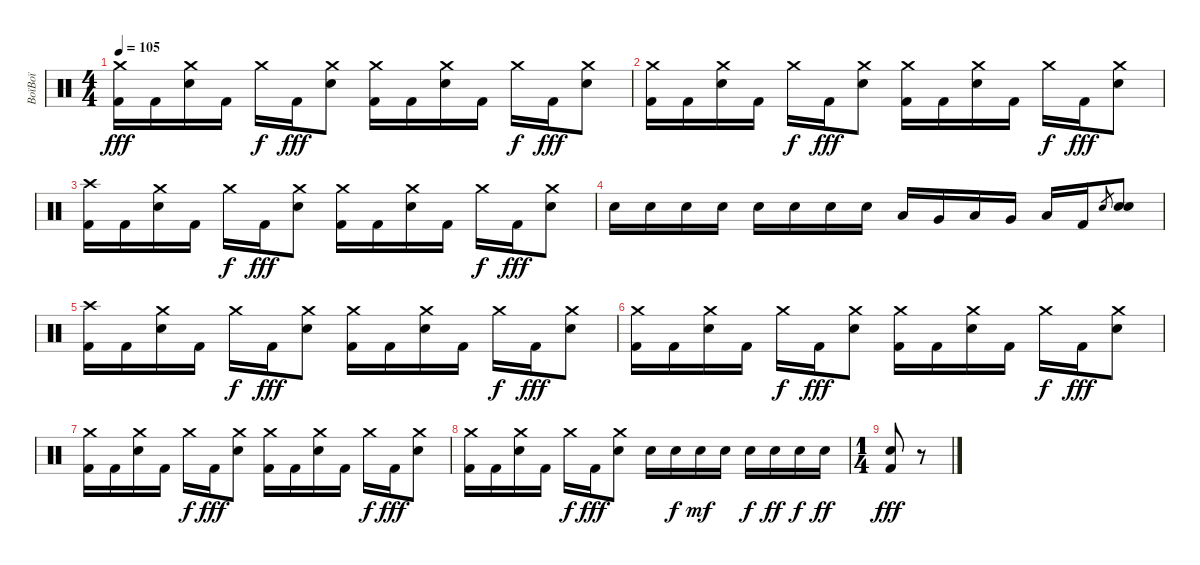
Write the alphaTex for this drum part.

\track ("BoïBoï" "BoïBoï") {instrument percussion}
\staff {score}
\articulation defaults
\ts (4 4)
\tempo 105
\clef neutral
\ks c
("Crash medium (hit)" "Kick (hit) 2").16{dy fff} "Kick (hit) 2".16 ("Crash medium (hit)" "Electric Snare (hit)").16 "Kick (hit) 2".16 "Crash medium (hit)".16{dy f} "Kick (hit) 2".16{dy fff} ("Crash medium (hit)" "Electric Snare (hit)").8 ("Crash medium (hit)" "Kick (hit) 2").16 "Kick (hit) 2".16 ("Crash medium (hit)" "Electric Snare (hit)").16 "Kick (hit) 2".16 "Crash medium (hit)".16{dy f} "Kick (hit) 2".16{dy fff} ("Crash medium (hit)" "Electric Snare (hit)").8 |
("Crash medium (hit)" "Kick (hit) 2").16 "Kick (hit) 2".16 ("Crash medium (hit)" "Electric Snare (hit)").16 "Kick (hit) 2".16 "Crash medium (hit)".16{dy f} "Kick (hit) 2".16{dy fff} ("Crash medium (hit)" "Electric Snare (hit)").8 ("Crash medium (hit)" "Kick (hit) 2").16 "Kick (hit) 2".16 ("Crash medium (hit)" "Electric Snare (hit)").16 "Kick (hit) 2".16 "Crash medium (hit)".16{dy f} "Kick (hit) 2".16{dy fff} ("Crash medium (hit)" "Electric Snare (hit)").8 |
("Crash high (hit)" "Kick (hit) 2").16 "Kick (hit) 2".16 ("Crash medium (hit)" "Electric Snare (hit)").16 "Kick (hit) 2".16 "Crash medium (hit)".16{dy f} "Kick (hit) 2".16{dy fff} ("Crash medium (hit)" "Electric Snare (hit)").8 ("Crash medium (hit)" "Kick (hit) 2").16 "Kick (hit) 2".16 ("Crash medium (hit)" "Electric Snare (hit)").16 "Kick (hit) 2".16 "Crash medium (hit)".16{dy f} "Kick (hit) 2".16{dy fff} ("Crash medium (hit)" "Electric Snare (hit)").8 |
"Electric Snare (hit)".16 "Electric Snare (hit)".16 "Electric Snare (hit)".16 "Electric Snare (hit)".16 "Electric Snare (hit)".16 "Electric Snare (hit)".16 "Electric Snare (hit)".16 "Electric Snare (hit)".16 "Low Tom (hit)".16 "Very Low Tom (hit)".16 "Low Tom (hit)".16 "Very Low Tom (hit)".16 "Low Floor Tom (hit)".16 "Kick (hit) 2".16 "Electric Snare (hit)".8{gr} ("Electric Snare (hit)" "Snare (hit) 2").8 |
("Crash high (hit)" "Kick (hit) 2").16 "Kick (hit) 2".16 ("Crash medium (hit)" "Electric Snare (hit)").16 "Kick (hit) 2".16 "Crash medium (hit)".16{dy f} "Kick (hit) 2".16{dy fff} ("Crash medium (hit)" "Electric Snare (hit)").8 ("Crash medium (hit)" "Kick (hit) 2").16 "Kick (hit) 2".16 ("Crash medium (hit)" "Electric Snare (hit)").16 "Kick (hit) 2".16 "Crash medium (hit)".16{dy f} "Kick (hit) 2".16{dy fff} ("Crash medium (hit)" "Electric Snare (hit)").8 |
("Crash medium (hit)" "Kick (hit) 2").16 "Kick (hit) 2".16 ("Crash medium (hit)" "Electric Snare (hit)").16 "Kick (hit) 2".16 "Crash medium (hit)".16{dy f} "Kick (hit) 2".16{dy fff} ("Crash medium (hit)" "Electric Snare (hit)").8 ("Crash medium (hit)" "Kick (hit) 2").16 "Kick (hit) 2".16 ("Crash medium (hit)" "Electric Snare (hit)").16 "Kick (hit) 2".16 "Crash medium (hit)".16{dy f} "Kick (hit) 2".16{dy fff} ("Crash medium (hit)" "Electric Snare (hit)").8 |
("Crash medium (hit)" "Kick (hit) 2").16 "Kick (hit) 2".16 ("Crash medium (hit)" "Electric Snare (hit)").16 "Kick (hit) 2".16 "Crash medium (hit)".16{dy f} "Kick (hit) 2".16{dy fff} ("Crash medium (hit)" "Electric Snare (hit)").8 ("Crash medium (hit)" "Kick (hit) 2").16 "Kick (hit) 2".16 ("Crash medium (hit)" "Electric Snare (hit)").16 "Kick (hit) 2".16 "Crash medium (hit)".16{dy f} "Kick (hit) 2".16{dy fff} ("Crash medium (hit)" "Electric Snare (hit)").8 |
("Crash medium (hit)" "Kick (hit) 2").16 "Kick (hit) 2".16 ("Crash medium (hit)" "Electric Snare (hit)").16 "Kick (hit) 2".16 "Crash medium (hit)".16{dy f} "Kick (hit) 2".16{dy fff} ("Crash medium (hit)" "Electric Snare (hit)").8 "Electric Snare (hit)".16 "Electric Snare (hit)".16{dy f} "Electric Snare (hit)".16{dy mf} "Electric Snare (hit)".16 "Electric Snare (hit)".16{dy f} "Electric Snare (hit)".16{dy ff} "Electric Snare (hit)".16{dy f} "Electric Snare (hit)".16{dy ff} |
\ts (1 4)
("Electric Snare (hit)" "Kick (hit) 2").8{dy fff} r.8
